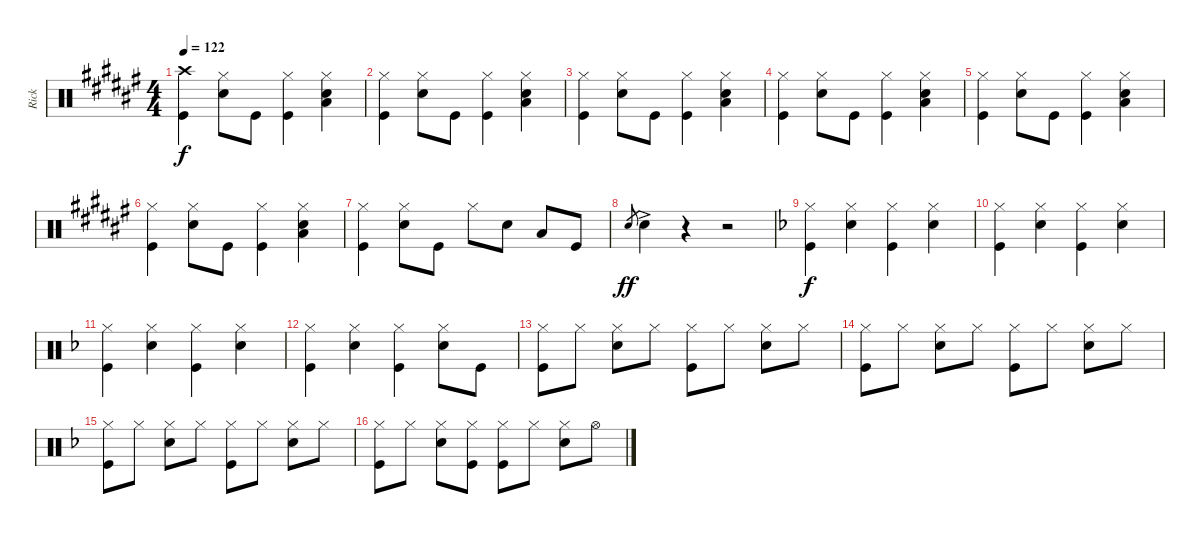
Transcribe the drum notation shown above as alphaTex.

\track ("Rick" "Rick") {instrument percussion}
\staff {score}
\articulation defaults
\ts (4 4)
\tempo 122
\clef neutral
\ks f#
("Crash high (hit)" "Kick (hit)").4{dy f} ("Hi-Hat (closed)" "Snare (hit) 2").8 "Kick (hit)".8 ("Hi-Hat (closed)" "Kick (hit)").4 ("Hi-Hat (closed)" "Snare (hit) 2" "Low Tom (hit)").4 |
("Hi-Hat (closed)" "Kick (hit)").4 ("Hi-Hat (closed)" "Snare (hit) 2").8 "Kick (hit)".8 ("Hi-Hat (closed)" "Kick (hit)").4 ("Hi-Hat (closed)" "Snare (hit) 2" "Low Tom (hit)").4 |
("Hi-Hat (closed)" "Kick (hit)").4 ("Hi-Hat (closed)" "Snare (hit) 2").8 "Kick (hit)".8 ("Hi-Hat (closed)" "Kick (hit)").4 ("Hi-Hat (closed)" "Snare (hit) 2" "Low Tom (hit)").4 |
("Hi-Hat (closed)" "Kick (hit)").4 ("Hi-Hat (closed)" "Snare (hit) 2").8 "Kick (hit)".8 ("Hi-Hat (closed)" "Kick (hit)").4 ("Hi-Hat (closed)" "Snare (hit) 2" "Low Tom (hit)").4 |
("Hi-Hat (closed)" "Kick (hit)").4 ("Hi-Hat (closed)" "Snare (hit) 2").8 "Kick (hit)".8 ("Hi-Hat (closed)" "Kick (hit)").4 ("Hi-Hat (closed)" "Snare (hit) 2" "Low Tom (hit)").4 |
("Hi-Hat (closed)" "Kick (hit)").4 ("Hi-Hat (closed)" "Snare (hit) 2").8 "Kick (hit)".8 ("Hi-Hat (closed)" "Kick (hit)").4 ("Hi-Hat (closed)" "Snare (hit) 2" "Low Tom (hit)").4 |
("Hi-Hat (closed)" "Kick (hit)").4 ("Hi-Hat (closed)" "Snare (hit) 2").8 "Kick (hit)".8 "Hi-Hat (closed)".8 "Snare (hit) 2".8 "Low Tom (hit)".8 "Kick (hit)".8 |
"Snare (hit) 2".8{gr dy ff} "Snare (hit) 2"{ac}.4 r.4 r.2 |
\ks f
("Hi-Hat (closed)" "Kick (hit)").4{dy f} ("Hi-Hat (closed)" "Snare (hit) 2").4 ("Hi-Hat (closed)" "Kick (hit)").4 ("Hi-Hat (closed)" "Snare (hit) 2").4 |
("Hi-Hat (closed)" "Kick (hit)").4 ("Hi-Hat (closed)" "Snare (hit) 2").4 ("Hi-Hat (closed)" "Kick (hit)").4 ("Hi-Hat (closed)" "Snare (hit) 2").4 |
("Hi-Hat (closed)" "Kick (hit)").4 ("Hi-Hat (closed)" "Snare (hit) 2").4 ("Hi-Hat (closed)" "Kick (hit)").4 ("Hi-Hat (closed)" "Snare (hit) 2").4 |
("Hi-Hat (closed)" "Kick (hit)").4 ("Hi-Hat (closed)" "Snare (hit) 2").4 ("Hi-Hat (closed)" "Kick (hit)").4 ("Hi-Hat (closed)" "Snare (hit) 2").8 "Kick (hit)".8 |
("Hi-Hat (closed)" "Kick (hit)").8 "Hi-Hat (closed)".8 ("Hi-Hat (closed)" "Snare (hit) 2").8 "Hi-Hat (closed)".8 ("Hi-Hat (closed)" "Kick (hit)").8 "Hi-Hat (closed)".8 ("Hi-Hat (closed)" "Snare (hit) 2").8 "Hi-Hat (closed)".8 |
("Hi-Hat (closed)" "Kick (hit)").8 "Hi-Hat (closed)".8 ("Hi-Hat (closed)" "Snare (hit) 2").8 "Hi-Hat (closed)".8 ("Hi-Hat (closed)" "Kick (hit)").8 "Hi-Hat (closed)".8 ("Hi-Hat (closed)" "Snare (hit) 2").8 "Hi-Hat (closed)".8 |
("Hi-Hat (closed)" "Kick (hit)").8 "Hi-Hat (closed)".8 ("Hi-Hat (closed)" "Snare (hit) 2").8 "Hi-Hat (closed)".8 ("Hi-Hat (closed)" "Kick (hit)").8 "Hi-Hat (closed)".8 ("Hi-Hat (closed)" "Snare (hit) 2").8 "Hi-Hat (closed)".8 |
("Hi-Hat (closed)" "Kick (hit)").8 "Hi-Hat (closed)".8 ("Hi-Hat (closed)" "Snare (hit) 2").8 ("Hi-Hat (closed)" "Kick (hit)").8 ("Hi-Hat (closed)" "Kick (hit)").8 "Hi-Hat (closed)".8 ("Hi-Hat (closed)" "Snare (hit) 2").8 "Hi-Hat (open)".8
